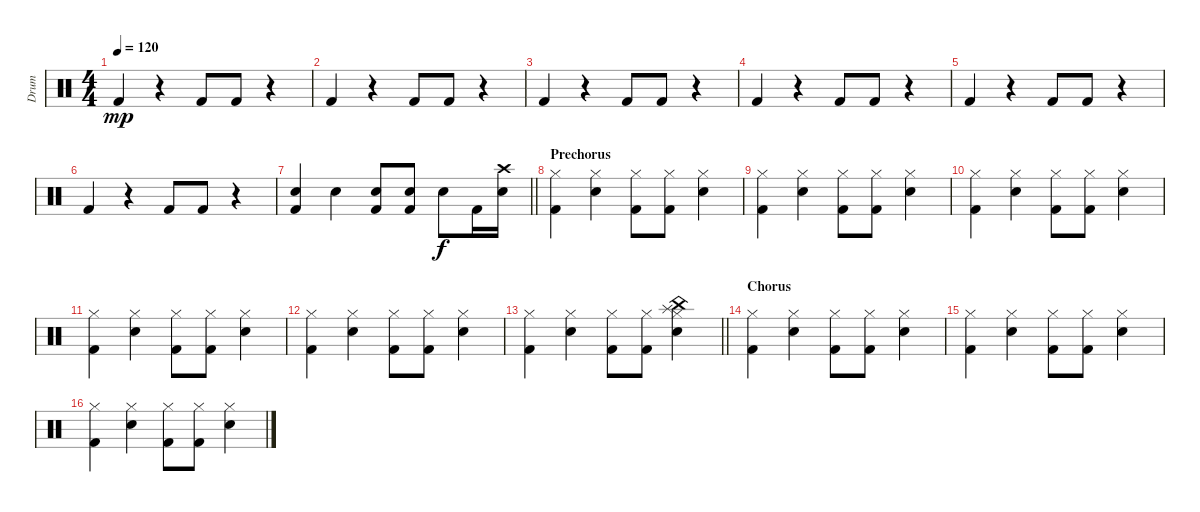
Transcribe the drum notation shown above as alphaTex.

\track ("Drum" "Drum") {instrument percussion}
\staff {score}
\articulation defaults
\ts (4 4)
\tempo 120
\clef neutral
\ks c "Kick (hit) 2".4{dy mp}
r.4 "Kick (hit) 2".8 "Kick (hit) 2".8 r.4 |
"Kick (hit) 2".4 r.4 "Kick (hit) 2".8 "Kick (hit) 2".8 r.4 |
"Kick (hit) 2".4 r.4 "Kick (hit) 2".8 "Kick (hit) 2".8 r.4 |
"Kick (hit) 2".4 r.4 "Kick (hit) 2".8 "Kick (hit) 2".8 r.4 |
"Kick (hit) 2".4 r.4 "Kick (hit) 2".8 "Kick (hit) 2".8 r.4 |
"Kick (hit) 2".4 r.4 "Kick (hit) 2".8 "Kick (hit) 2".8 r.4 |
\barLineRight lightlight
("Snare (hit) 2" "Kick (hit) 2").4 "Snare (hit) 2".4 ("Snare (hit) 2" "Kick (hit) 2").8 ("Snare (hit) 2" "Kick (hit) 2").8 "Snare (hit) 2".8{dy f} "Kick (hit) 2".16 ("Snare (hit) 2" "Crash high (hit)").16 |
\section ("" "Prechorus")
("Hi-Hat (closed)" "Kick (hit) 2").4 ("Snare (hit) 2" "Hi-Hat (closed)").4 ("Hi-Hat (closed)" "Kick (hit) 2").8 ("Hi-Hat (closed)" "Kick (hit) 2").8 ("Snare (hit) 2" "Hi-Hat (closed)").4 |
("Hi-Hat (closed)" "Kick (hit) 2").4 ("Snare (hit) 2" "Hi-Hat (closed)").4 ("Hi-Hat (closed)" "Kick (hit) 2").8 ("Hi-Hat (closed)" "Kick (hit) 2").8 ("Snare (hit) 2" "Hi-Hat (closed)").4 |
("Hi-Hat (closed)" "Kick (hit) 2").4 ("Snare (hit) 2" "Hi-Hat (closed)").4 ("Hi-Hat (closed)" "Kick (hit) 2").8 ("Hi-Hat (closed)" "Kick (hit) 2").8 ("Snare (hit) 2" "Hi-Hat (closed)").4 |
("Hi-Hat (closed)" "Kick (hit) 2").4 ("Snare (hit) 2" "Hi-Hat (closed)").4 ("Hi-Hat (closed)" "Kick (hit) 2").8 ("Hi-Hat (closed)" "Kick (hit) 2").8 ("Snare (hit) 2" "Hi-Hat (closed)").4 |
("Hi-Hat (closed)" "Kick (hit) 2").4 ("Snare (hit) 2" "Hi-Hat (closed)").4 ("Hi-Hat (closed)" "Kick (hit) 2").8 ("Hi-Hat (closed)" "Kick (hit) 2").8 ("Snare (hit) 2" "Hi-Hat (closed)").4 |
\barLineRight lightlight
("Hi-Hat (closed)" "Kick (hit) 2").4 ("Snare (hit) 2" "Hi-Hat (closed)").4 ("Hi-Hat (closed)" "Kick (hit) 2").8 ("Hi-Hat (closed)" "Kick (hit) 2").8 ("Snare (hit) 2" "Hi-Hat (closed)" "Splash (hit)" "China (hit)").4 |
\section ("" "Chorus")
("Hi-Hat (closed)" "Kick (hit) 2").4 ("Snare (hit) 2" "Hi-Hat (closed)").4 ("Hi-Hat (closed)" "Kick (hit) 2").8 ("Hi-Hat (closed)" "Kick (hit) 2").8 ("Snare (hit) 2" "Hi-Hat (closed)").4 |
("Hi-Hat (closed)" "Kick (hit) 2").4 ("Snare (hit) 2" "Hi-Hat (closed)").4 ("Hi-Hat (closed)" "Kick (hit) 2").8 ("Hi-Hat (closed)" "Kick (hit) 2").8 ("Snare (hit) 2" "Hi-Hat (closed)").4 |
("Hi-Hat (closed)" "Kick (hit) 2").4 ("Snare (hit) 2" "Hi-Hat (closed)").4 ("Hi-Hat (closed)" "Kick (hit) 2").8 ("Hi-Hat (closed)" "Kick (hit) 2").8 ("Snare (hit) 2" "Hi-Hat (closed)").4
